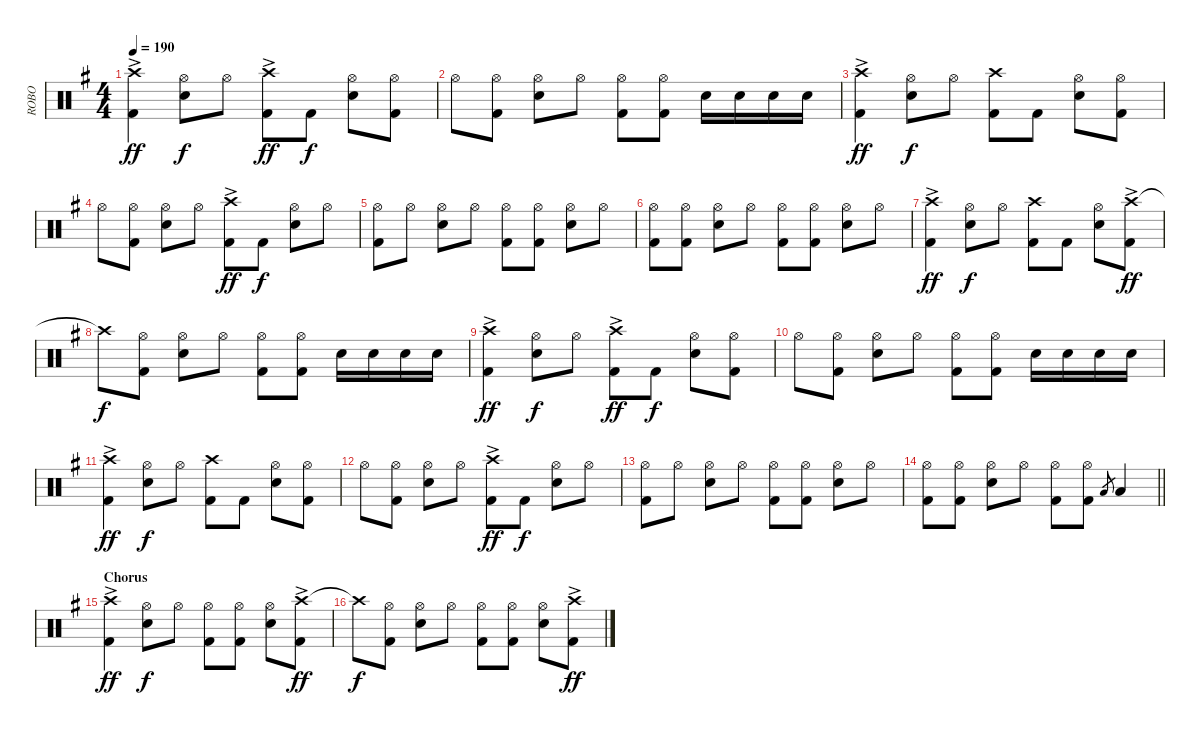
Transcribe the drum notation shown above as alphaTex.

\track ("ROBO" "ROBO") {instrument percussion}
\staff {score}
\articulation defaults
\ts (4 4)
\tempo 190
\clef neutral
\ks eminor
("Crash high (hit)"{ac} "Kick (hit) 2").4{dy ff} ("Hi-Hat (open)" "Snare (hit) 2").8{dy f} "Hi-Hat (open)".8 ("Crash high (hit)"{ac} "Kick (hit) 2").8{dy ff} "Kick (hit) 2".8{dy f} ("Hi-Hat (open)" "Snare (hit) 2").8 ("Hi-Hat (open)" "Kick (hit) 2").8 |
"Hi-Hat (open)".8 ("Hi-Hat (open)" "Kick (hit) 2").8 ("Hi-Hat (open)" "Snare (hit) 2").8 "Hi-Hat (open)".8 ("Hi-Hat (open)" "Kick (hit) 2").8 ("Hi-Hat (open)" "Kick (hit) 2").8 "Snare (hit) 2".16 "Snare (hit) 2".16 "Snare (hit) 2".16 "Snare (hit) 2".16 |
("Crash high (hit)"{ac} "Kick (hit) 2").4{dy ff} ("Hi-Hat (open)" "Snare (hit) 2").8{dy f} "Hi-Hat (open)".8 ("Crash high (hit)" "Kick (hit) 2").8 "Kick (hit) 2".8 ("Hi-Hat (open)" "Snare (hit) 2").8 ("Hi-Hat (open)" "Kick (hit) 2").8 |
"Hi-Hat (open)".8 ("Hi-Hat (open)" "Kick (hit) 2").8 ("Hi-Hat (open)" "Snare (hit) 2").8 "Hi-Hat (open)".8 ("Crash high (hit)"{ac} "Kick (hit) 2").8{dy ff} "Kick (hit) 2".8{dy f} ("Hi-Hat (open)" "Snare (hit) 2").8 "Hi-Hat (open)".8 |
("Hi-Hat (open)" "Kick (hit) 2").8 "Hi-Hat (open)".8 ("Hi-Hat (open)" "Snare (hit) 2").8 "Hi-Hat (open)".8 ("Hi-Hat (open)" "Kick (hit) 2").8 ("Hi-Hat (open)" "Kick (hit) 2").8 ("Hi-Hat (open)" "Snare (hit) 2").8 "Hi-Hat (open)".8 |
("Hi-Hat (open)" "Kick (hit) 2").8 ("Hi-Hat (open)" "Kick (hit) 2").8 ("Hi-Hat (open)" "Snare (hit) 2").8 "Hi-Hat (open)".8 ("Hi-Hat (open)" "Kick (hit) 2").8 ("Hi-Hat (open)" "Kick (hit) 2").8 ("Hi-Hat (open)" "Snare (hit) 2").8 "Hi-Hat (open)".8 |
("Crash high (hit)"{ac} "Kick (hit) 2").4{dy ff} ("Hi-Hat (open)" "Snare (hit) 2").8{dy f} "Hi-Hat (open)".8 ("Crash high (hit)" "Kick (hit) 2").8 "Kick (hit) 2".8 ("Hi-Hat (open)" "Snare (hit) 2").8 ("Crash high (hit)"{ac} "Kick (hit) 2").8{dy ff} |
"Crash high (hit)"{t}.8{dy f} ("Hi-Hat (open)" "Kick (hit) 2").8 ("Hi-Hat (open)" "Snare (hit) 2").8 "Hi-Hat (open)".8 ("Hi-Hat (open)" "Kick (hit) 2").8 ("Hi-Hat (open)" "Kick (hit) 2").8 "Snare (hit) 2".16 "Snare (hit) 2".16 "Snare (hit) 2".16 "Snare (hit) 2".16 |
("Crash high (hit)"{ac} "Kick (hit) 2").4{dy ff} ("Hi-Hat (open)" "Snare (hit) 2").8{dy f} "Hi-Hat (open)".8 ("Crash high (hit)"{ac} "Kick (hit) 2").8{dy ff} "Kick (hit) 2".8{dy f} ("Hi-Hat (open)" "Snare (hit) 2").8 ("Hi-Hat (open)" "Kick (hit) 2").8 |
"Hi-Hat (open)".8 ("Hi-Hat (open)" "Kick (hit) 2").8 ("Hi-Hat (open)" "Snare (hit) 2").8 "Hi-Hat (open)".8 ("Hi-Hat (open)" "Kick (hit) 2").8 ("Hi-Hat (open)" "Kick (hit) 2").8 "Snare (hit) 2".16 "Snare (hit) 2".16 "Snare (hit) 2".16 "Snare (hit) 2".16 |
("Crash high (hit)"{ac} "Kick (hit) 2").4{dy ff} ("Hi-Hat (open)" "Snare (hit) 2").8{dy f} "Hi-Hat (open)".8 ("Crash high (hit)" "Kick (hit) 2").8 "Kick (hit) 2".8 ("Hi-Hat (open)" "Snare (hit) 2").8 ("Hi-Hat (open)" "Kick (hit) 2").8 |
"Hi-Hat (open)".8 ("Hi-Hat (open)" "Kick (hit) 2").8 ("Hi-Hat (open)" "Snare (hit) 2").8 "Hi-Hat (open)".8 ("Crash high (hit)"{ac} "Kick (hit) 2").8{dy ff} "Kick (hit) 2".8{dy f} ("Hi-Hat (open)" "Snare (hit) 2").8 "Hi-Hat (open)".8 |
("Hi-Hat (open)" "Kick (hit) 2").8 "Hi-Hat (open)".8 ("Hi-Hat (open)" "Snare (hit) 2").8 "Hi-Hat (open)".8 ("Hi-Hat (open)" "Kick (hit) 2").8 ("Hi-Hat (open)" "Kick (hit) 2").8 ("Hi-Hat (open)" "Snare (hit) 2").8 "Hi-Hat (open)".8 |
\barLineRight lightlight
("Hi-Hat (open)" "Kick (hit) 2").8 ("Hi-Hat (open)" "Kick (hit) 2").8 ("Hi-Hat (open)" "Snare (hit) 2").8 "Hi-Hat (open)".8 ("Hi-Hat (open)" "Kick (hit) 2").8 ("Hi-Hat (open)" "Kick (hit) 2").8 "Low Tom (hit)".8{gr} "Low Tom (hit)".4 |
\section ("" "Chorus")
("Crash high (hit)"{ac} "Kick (hit) 2").4{dy ff} ("Hi-Hat (open)" "Snare (hit) 2").8{dy f} "Hi-Hat (open)".8 ("Hi-Hat (open)" "Kick (hit) 2").8 ("Hi-Hat (open)" "Kick (hit) 2").8 ("Hi-Hat (open)" "Snare (hit) 2").8 ("Crash high (hit)"{ac} "Kick (hit) 2").8{dy ff} |
"Crash high (hit)"{t}.8{dy f} ("Hi-Hat (open)" "Kick (hit) 2").8 ("Hi-Hat (open)" "Snare (hit) 2").8 "Hi-Hat (open)".8 ("Hi-Hat (open)" "Kick (hit) 2").8 ("Hi-Hat (open)" "Kick (hit) 2").8 ("Hi-Hat (open)" "Snare (hit) 2").8 ("Crash high (hit)"{ac} "Kick (hit) 2").8{dy ff}
